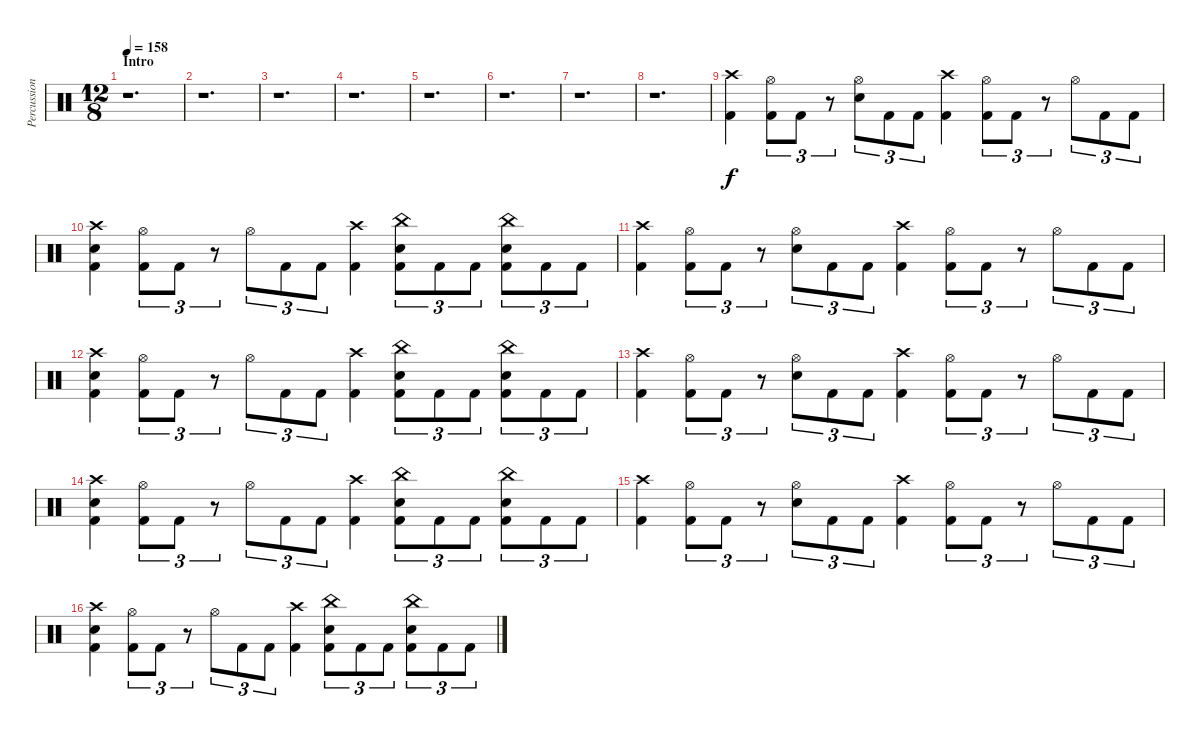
\track ("Percussion" "Percussion") {instrument percussion}
\staff {score}
\articulation defaults
\ts (12 8)
\section ("" "Intro")
\tempo 158
\clef neutral
\ks c
r.1{d dy f} |
r.1{d} |
r.1{d} |
r.1{d} |
r.1{d} |
r.1{d} |
r.1{d} |
r.1{d} |
("Crash high (hit)" "Kick (hit) 2").4 ("Hi-Hat (open)" "Kick (hit) 2").8{tu (3 2)} "Kick (hit) 2".8{tu (3 2)} r.8{tu (3 2)} ("Hi-Hat (open)" "Electric Snare (hit)").8{tu (3 2)} "Kick (hit) 2".8{tu (3 2)} "Kick (hit) 2".8{tu (3 2)} ("Crash high (hit)" "Kick (hit) 2").4 ("Hi-Hat (open)" "Kick (hit) 2").8{tu (3 2)} "Kick (hit) 2".8{tu (3 2)} r.8{tu (3 2)} "Hi-Hat (open)".8{tu (3 2)} "Kick (hit) 2".8{tu (3 2)} "Kick (hit) 2".8{tu (3 2)} |
("Crash high (hit)" "Electric Snare (hit)" "Kick (hit) 2").4 ("Hi-Hat (open)" "Kick (hit) 2").8{tu (3 2)} "Kick (hit) 2".8{tu (3 2)} r.8{tu (3 2)} "Hi-Hat (open)".8{tu (3 2)} "Kick (hit) 2".8{tu (3 2)} "Kick (hit) 2".8{tu (3 2)} ("Crash high (hit)" "Kick (hit) 2").4 ("China (hit)" "Electric Snare (hit)" "Kick (hit) 2").8{tu (3 2)} "Kick (hit) 2".8{tu (3 2)} "Kick (hit) 2".8{tu (3 2)} ("China (hit)" "Electric Snare (hit)" "Kick (hit) 2").8{tu (3 2)} "Kick (hit) 2".8{tu (3 2)} "Kick (hit) 2".8{tu (3 2)} |
("Crash high (hit)" "Kick (hit) 2").4 ("Hi-Hat (open)" "Kick (hit) 2").8{tu (3 2)} "Kick (hit) 2".8{tu (3 2)} r.8{tu (3 2)} ("Hi-Hat (open)" "Electric Snare (hit)").8{tu (3 2)} "Kick (hit) 2".8{tu (3 2)} "Kick (hit) 2".8{tu (3 2)} ("Crash high (hit)" "Kick (hit) 2").4 ("Hi-Hat (open)" "Kick (hit) 2").8{tu (3 2)} "Kick (hit) 2".8{tu (3 2)} r.8{tu (3 2)} "Hi-Hat (open)".8{tu (3 2)} "Kick (hit) 2".8{tu (3 2)} "Kick (hit) 2".8{tu (3 2)} |
("Crash high (hit)" "Electric Snare (hit)" "Kick (hit) 2").4 ("Hi-Hat (open)" "Kick (hit) 2").8{tu (3 2)} "Kick (hit) 2".8{tu (3 2)} r.8{tu (3 2)} "Hi-Hat (open)".8{tu (3 2)} "Kick (hit) 2".8{tu (3 2)} "Kick (hit) 2".8{tu (3 2)} ("Crash high (hit)" "Kick (hit) 2").4 ("China (hit)" "Electric Snare (hit)" "Kick (hit) 2").8{tu (3 2)} "Kick (hit) 2".8{tu (3 2)} "Kick (hit) 2".8{tu (3 2)} ("China (hit)" "Electric Snare (hit)" "Kick (hit) 2").8{tu (3 2)} "Kick (hit) 2".8{tu (3 2)} "Kick (hit) 2".8{tu (3 2)} |
("Crash high (hit)" "Kick (hit) 2").4 ("Hi-Hat (open)" "Kick (hit) 2").8{tu (3 2)} "Kick (hit) 2".8{tu (3 2)} r.8{tu (3 2)} ("Hi-Hat (open)" "Electric Snare (hit)").8{tu (3 2)} "Kick (hit) 2".8{tu (3 2)} "Kick (hit) 2".8{tu (3 2)} ("Crash high (hit)" "Kick (hit) 2").4 ("Hi-Hat (open)" "Kick (hit) 2").8{tu (3 2)} "Kick (hit) 2".8{tu (3 2)} r.8{tu (3 2)} "Hi-Hat (open)".8{tu (3 2)} "Kick (hit) 2".8{tu (3 2)} "Kick (hit) 2".8{tu (3 2)} |
("Crash high (hit)" "Electric Snare (hit)" "Kick (hit) 2").4 ("Hi-Hat (open)" "Kick (hit) 2").8{tu (3 2)} "Kick (hit) 2".8{tu (3 2)} r.8{tu (3 2)} "Hi-Hat (open)".8{tu (3 2)} "Kick (hit) 2".8{tu (3 2)} "Kick (hit) 2".8{tu (3 2)} ("Crash high (hit)" "Kick (hit) 2").4 ("China (hit)" "Electric Snare (hit)" "Kick (hit) 2").8{tu (3 2)} "Kick (hit) 2".8{tu (3 2)} "Kick (hit) 2".8{tu (3 2)} ("China (hit)" "Electric Snare (hit)" "Kick (hit) 2").8{tu (3 2)} "Kick (hit) 2".8{tu (3 2)} "Kick (hit) 2".8{tu (3 2)} |
("Crash high (hit)" "Kick (hit) 2").4 ("Hi-Hat (open)" "Kick (hit) 2").8{tu (3 2)} "Kick (hit) 2".8{tu (3 2)} r.8{tu (3 2)} ("Hi-Hat (open)" "Electric Snare (hit)").8{tu (3 2)} "Kick (hit) 2".8{tu (3 2)} "Kick (hit) 2".8{tu (3 2)} ("Crash high (hit)" "Kick (hit) 2").4 ("Hi-Hat (open)" "Kick (hit) 2").8{tu (3 2)} "Kick (hit) 2".8{tu (3 2)} r.8{tu (3 2)} "Hi-Hat (open)".8{tu (3 2)} "Kick (hit) 2".8{tu (3 2)} "Kick (hit) 2".8{tu (3 2)} |
("Crash high (hit)" "Electric Snare (hit)" "Kick (hit) 2").4 ("Hi-Hat (open)" "Kick (hit) 2").8{tu (3 2)} "Kick (hit) 2".8{tu (3 2)} r.8{tu (3 2)} "Hi-Hat (open)".8{tu (3 2)} "Kick (hit) 2".8{tu (3 2)} "Kick (hit) 2".8{tu (3 2)} ("Crash high (hit)" "Kick (hit) 2").4 ("China (hit)" "Electric Snare (hit)" "Kick (hit) 2").8{tu (3 2)} "Kick (hit) 2".8{tu (3 2)} "Kick (hit) 2".8{tu (3 2)} ("China (hit)" "Electric Snare (hit)" "Kick (hit) 2").8{tu (3 2)} "Kick (hit) 2".8{tu (3 2)} "Kick (hit) 2".8{tu (3 2)}
